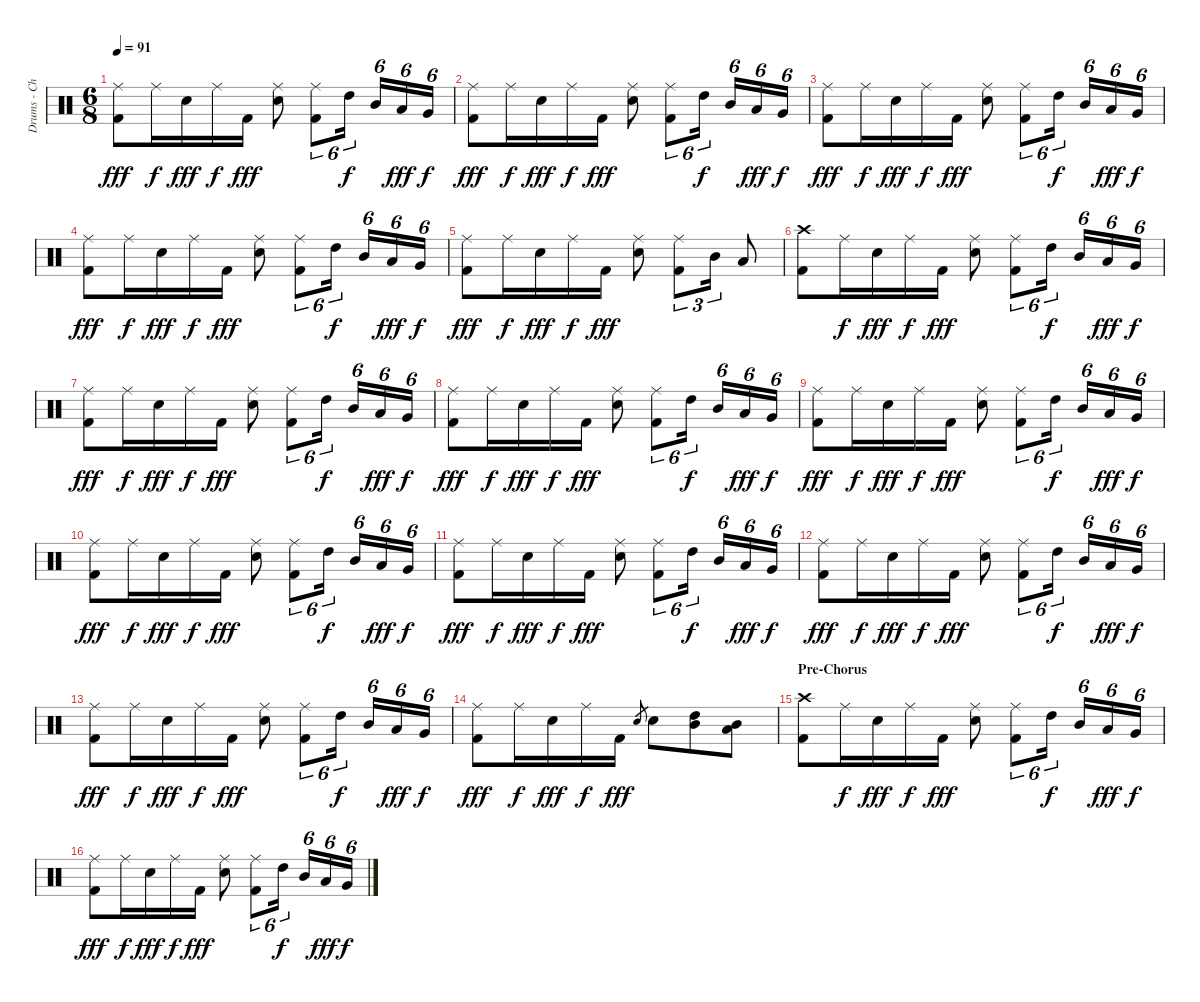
\track ("Drums - Chad" "Drums - Ch") {instrument percussion}
\staff {score}
\articulation defaults
\ts (6 8)
\tempo 91
\clef neutral
\ks c
("Ride (middle)" "Kick (hit) 2").8{dy fff} "Ride (middle)".16{dy f} "Electric Snare (hit)".16{dy fff} "Ride (middle)".16{dy f} "Kick (hit) 2".16{dy fff} ("Ride (middle)" "Electric Snare (hit)").8 ("Ride (middle)" "Kick (hit) 2").8{tu (6 4)} "High Tom (hit)".16{tu (6 4) dy f} "Mid Tom (hit)".16{tu (6 4)} "Low Tom (hit)".16{tu (6 4) dy fff} "Very Low Tom (hit)".16{tu (6 4) dy f} |
("Ride (middle)" "Kick (hit) 2").8{dy fff} "Ride (middle)".16{dy f} "Electric Snare (hit)".16{dy fff} "Ride (middle)".16{dy f} "Kick (hit) 2".16{dy fff} ("Ride (middle)" "Electric Snare (hit)").8 ("Ride (middle)" "Kick (hit) 2").8{tu (6 4)} "High Tom (hit)".16{tu (6 4) dy f} "Mid Tom (hit)".16{tu (6 4)} "Low Tom (hit)".16{tu (6 4) dy fff} "Very Low Tom (hit)".16{tu (6 4) dy f} |
("Ride (middle)" "Kick (hit) 2").8{dy fff} "Ride (middle)".16{dy f} "Electric Snare (hit)".16{dy fff} "Ride (middle)".16{dy f} "Kick (hit) 2".16{dy fff} ("Ride (middle)" "Electric Snare (hit)").8 ("Ride (middle)" "Kick (hit) 2").8{tu (6 4)} "High Tom (hit)".16{tu (6 4) dy f} "Mid Tom (hit)".16{tu (6 4)} "Low Tom (hit)".16{tu (6 4) dy fff} "Very Low Tom (hit)".16{tu (6 4) dy f} |
("Ride (middle)" "Kick (hit) 2").8{dy fff} "Ride (middle)".16{dy f} "Electric Snare (hit)".16{dy fff} "Ride (middle)".16{dy f} "Kick (hit) 2".16{dy fff} ("Ride (middle)" "Electric Snare (hit)").8 ("Ride (middle)" "Kick (hit) 2").8{tu (6 4)} "High Tom (hit)".16{tu (6 4) dy f} "Mid Tom (hit)".16{tu (6 4)} "Low Tom (hit)".16{tu (6 4) dy fff} "Very Low Tom (hit)".16{tu (6 4) dy f} |
("Ride (middle)" "Kick (hit) 2").8{dy fff} "Ride (middle)".16{dy f} "Electric Snare (hit)".16{dy fff} "Ride (middle)".16{dy f} "Kick (hit) 2".16{dy fff} ("Ride (middle)" "Electric Snare (hit)").8 ("Ride (middle)" "Kick (hit) 2").8{tu (3 2)} "Mid Tom (hit)".16{tu (3 2)} "Low Tom (hit)".8 |
("Crash high (hit)" "Kick (hit) 2").8 "Ride (middle)".16{dy f} "Electric Snare (hit)".16{dy fff} "Ride (middle)".16{dy f} "Kick (hit) 2".16{dy fff} ("Ride (middle)" "Electric Snare (hit)").8 ("Ride (middle)" "Kick (hit) 2").8{tu (6 4)} "High Tom (hit)".16{tu (6 4) dy f} "Mid Tom (hit)".16{tu (6 4)} "Low Tom (hit)".16{tu (6 4) dy fff} "Very Low Tom (hit)".16{tu (6 4) dy f} |
("Ride (middle)" "Kick (hit) 2").8{dy fff} "Ride (middle)".16{dy f} "Electric Snare (hit)".16{dy fff} "Ride (middle)".16{dy f} "Kick (hit) 2".16{dy fff} ("Ride (middle)" "Electric Snare (hit)").8 ("Ride (middle)" "Kick (hit) 2").8{tu (6 4)} "High Tom (hit)".16{tu (6 4) dy f} "Mid Tom (hit)".16{tu (6 4)} "Low Tom (hit)".16{tu (6 4) dy fff} "Very Low Tom (hit)".16{tu (6 4) dy f} |
("Ride (middle)" "Kick (hit) 2").8{dy fff} "Ride (middle)".16{dy f} "Electric Snare (hit)".16{dy fff} "Ride (middle)".16{dy f} "Kick (hit) 2".16{dy fff} ("Ride (middle)" "Electric Snare (hit)").8 ("Ride (middle)" "Kick (hit) 2").8{tu (6 4)} "High Tom (hit)".16{tu (6 4) dy f} "Mid Tom (hit)".16{tu (6 4)} "Low Tom (hit)".16{tu (6 4) dy fff} "Very Low Tom (hit)".16{tu (6 4) dy f} |
("Ride (middle)" "Kick (hit) 2").8{dy fff} "Ride (middle)".16{dy f} "Electric Snare (hit)".16{dy fff} "Ride (middle)".16{dy f} "Kick (hit) 2".16{dy fff} ("Ride (middle)" "Electric Snare (hit)").8 ("Ride (middle)" "Kick (hit) 2").8{tu (6 4)} "High Tom (hit)".16{tu (6 4) dy f} "Mid Tom (hit)".16{tu (6 4)} "Low Tom (hit)".16{tu (6 4) dy fff} "Very Low Tom (hit)".16{tu (6 4) dy f} |
("Ride (middle)" "Kick (hit) 2").8{dy fff} "Ride (middle)".16{dy f} "Electric Snare (hit)".16{dy fff} "Ride (middle)".16{dy f} "Kick (hit) 2".16{dy fff} ("Ride (middle)" "Electric Snare (hit)").8 ("Ride (middle)" "Kick (hit) 2").8{tu (6 4)} "High Tom (hit)".16{tu (6 4) dy f} "Mid Tom (hit)".16{tu (6 4)} "Low Tom (hit)".16{tu (6 4) dy fff} "Very Low Tom (hit)".16{tu (6 4) dy f} |
("Ride (middle)" "Kick (hit) 2").8{dy fff} "Ride (middle)".16{dy f} "Electric Snare (hit)".16{dy fff} "Ride (middle)".16{dy f} "Kick (hit) 2".16{dy fff} ("Ride (middle)" "Electric Snare (hit)").8 ("Ride (middle)" "Kick (hit) 2").8{tu (6 4)} "High Tom (hit)".16{tu (6 4) dy f} "Mid Tom (hit)".16{tu (6 4)} "Low Tom (hit)".16{tu (6 4) dy fff} "Very Low Tom (hit)".16{tu (6 4) dy f} |
("Ride (middle)" "Kick (hit) 2").8{dy fff} "Ride (middle)".16{dy f} "Electric Snare (hit)".16{dy fff} "Ride (middle)".16{dy f} "Kick (hit) 2".16{dy fff} ("Ride (middle)" "Electric Snare (hit)").8 ("Ride (middle)" "Kick (hit) 2").8{tu (6 4)} "High Tom (hit)".16{tu (6 4) dy f} "Mid Tom (hit)".16{tu (6 4)} "Low Tom (hit)".16{tu (6 4) dy fff} "Very Low Tom (hit)".16{tu (6 4) dy f} |
("Ride (middle)" "Kick (hit) 2").8{dy fff} "Ride (middle)".16{dy f} "Electric Snare (hit)".16{dy fff} "Ride (middle)".16{dy f} "Kick (hit) 2".16{dy fff} ("Ride (middle)" "Electric Snare (hit)").8 ("Ride (middle)" "Kick (hit) 2").8{tu (6 4)} "High Tom (hit)".16{tu (6 4) dy f} "Mid Tom (hit)".16{tu (6 4)} "Low Tom (hit)".16{tu (6 4) dy fff} "Very Low Tom (hit)".16{tu (6 4) dy f} |
("Ride (middle)" "Kick (hit) 2").8{dy fff} "Ride (middle)".16{dy f} "Electric Snare (hit)".16{dy fff} "Ride (middle)".16{dy f} "Kick (hit) 2".16{dy fff} "Electric Snare (hit)".8{gr} "Electric Snare (hit)".8 ("High Tom (hit)" "Mid Tom (hit)").8 ("Mid Tom (hit)" "Low Tom (hit)").8 |
\section ("" "Pre-Chorus")
("Crash high (hit)" "Kick (hit) 2").8 "Ride (middle)".16{dy f} "Electric Snare (hit)".16{dy fff} "Ride (middle)".16{dy f} "Kick (hit) 2".16{dy fff} ("Ride (middle)" "Electric Snare (hit)").8 ("Ride (middle)" "Kick (hit) 2").8{tu (6 4)} "High Tom (hit)".16{tu (6 4) dy f} "Mid Tom (hit)".16{tu (6 4)} "Low Tom (hit)".16{tu (6 4) dy fff} "Very Low Tom (hit)".16{tu (6 4) dy f} |
("Ride (middle)" "Kick (hit) 2").8{dy fff} "Ride (middle)".16{dy f} "Electric Snare (hit)".16{dy fff} "Ride (middle)".16{dy f} "Kick (hit) 2".16{dy fff} ("Ride (middle)" "Electric Snare (hit)").8 ("Ride (middle)" "Kick (hit) 2").8{tu (6 4)} "High Tom (hit)".16{tu (6 4) dy f} "Mid Tom (hit)".16{tu (6 4)} "Low Tom (hit)".16{tu (6 4) dy fff} "Very Low Tom (hit)".16{tu (6 4) dy f}
